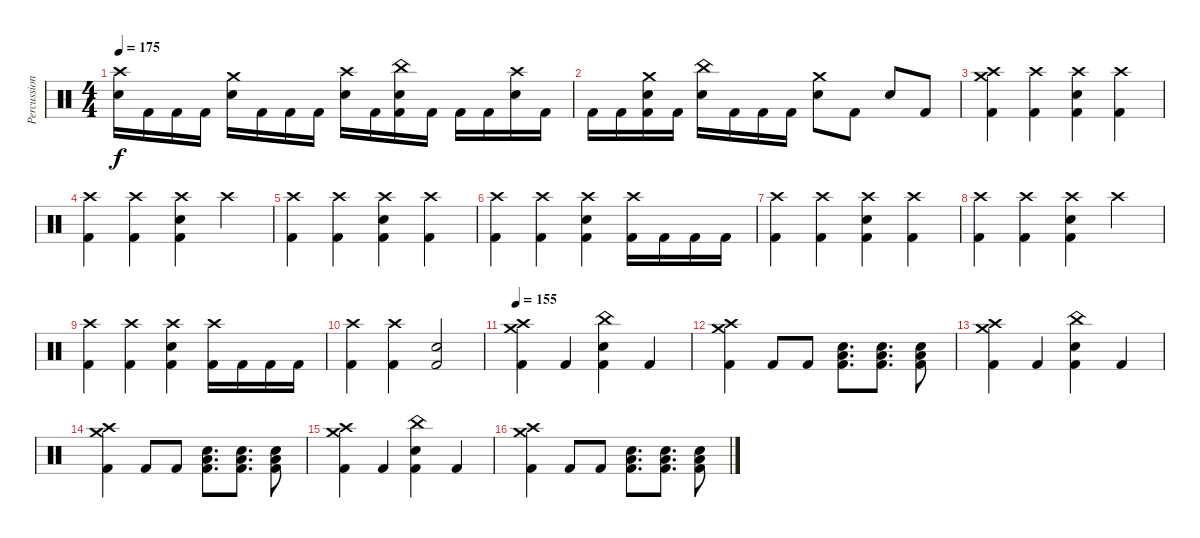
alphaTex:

\track ("Percussion" "Percussion") {instrument percussion}
\staff {score}
\articulation defaults
\ts (4 4)
\tempo 175
\clef neutral
\ks c
("Crash high (hit)" "Electric Snare (hit)").16{dy f} "Kick (hit) 2".16 "Kick (hit) 2".16 "Kick (hit) 2".16 ("Crash medium (hit)" "Electric Snare (hit)").16 "Kick (hit) 2".16 "Kick (hit) 2".16 "Kick (hit) 2".16 ("Crash high (hit)" "Electric Snare (hit)").16 "Kick (hit) 2".16 ("China (hit)" "Electric Snare (hit)" "Kick (hit) 2").16 "Kick (hit) 2".16 "Kick (hit) 2".16 "Kick (hit) 2".16 ("Crash high (hit)" "Electric Snare (hit)").16 "Kick (hit) 2".16 |
"Kick (hit) 2".16 "Kick (hit) 2".16 ("Crash medium (hit)" "Electric Snare (hit)" "Kick (hit) 2").16 "Kick (hit) 2".16 ("China (hit)" "Electric Snare (hit)").16 "Kick (hit) 2".16 "Kick (hit) 2".16 "Kick (hit) 2".16 ("Crash medium (hit)" "Electric Snare (hit)").8 "Kick (hit) 2".8 "Electric Snare (hit)".8 "Kick (hit) 2".8 |
("Crash medium (hit)" "Crash high (hit)" "Kick (hit) 2").4 ("Crash high (hit)" "Kick (hit) 2").4 ("Crash high (hit)" "Electric Snare (hit)" "Kick (hit) 2").4 ("Crash high (hit)" "Kick (hit) 2").4 |
("Crash high (hit)" "Kick (hit) 2").4 ("Crash high (hit)" "Kick (hit) 2").4 ("Crash high (hit)" "Electric Snare (hit)" "Kick (hit) 2").4 "Crash high (hit)".4 |
("Crash high (hit)" "Kick (hit) 2").4 ("Crash high (hit)" "Kick (hit) 2").4 ("Crash high (hit)" "Electric Snare (hit)" "Kick (hit) 2").4 ("Crash high (hit)" "Kick (hit) 2").4 |
("Crash high (hit)" "Kick (hit) 2").4 ("Crash high (hit)" "Kick (hit) 2").4 ("Crash high (hit)" "Electric Snare (hit)" "Kick (hit) 2").4 ("Crash high (hit)" "Kick (hit) 2").16 "Kick (hit) 2".16 "Kick (hit) 2".16 "Kick (hit) 2".16 |
("Crash high (hit)" "Kick (hit) 2").4 ("Crash high (hit)" "Kick (hit) 2").4 ("Crash high (hit)" "Electric Snare (hit)" "Kick (hit) 2").4 ("Crash high (hit)" "Kick (hit) 2").4 |
("Crash high (hit)" "Kick (hit) 2").4 ("Crash high (hit)" "Kick (hit) 2").4 ("Crash high (hit)" "Electric Snare (hit)" "Kick (hit) 2").4 "Crash high (hit)".4 |
("Crash high (hit)" "Kick (hit) 2").4 ("Crash high (hit)" "Kick (hit) 2").4 ("Crash high (hit)" "Electric Snare (hit)" "Kick (hit) 2").4 ("Crash high (hit)" "Kick (hit) 2").16 "Kick (hit) 2".16 "Kick (hit) 2".16 "Kick (hit) 2".16 |
("Crash high (hit)" "Kick (hit) 2").4 ("Crash high (hit)" "Kick (hit) 2").4 ("Electric Snare (hit)" "Kick (hit) 2").2 |
\tempo 155
("Crash medium (hit)" "Crash high (hit)" "Kick (hit) 2").4 "Kick (hit) 2".4 ("China (hit)" "Electric Snare (hit)" "Kick (hit) 2").4 "Kick (hit) 2".4 |
("Crash medium (hit)" "Crash high (hit)" "Kick (hit) 2").4 "Kick (hit) 2".8 "Kick (hit) 2".8 ("Low Floor Tom (hit)" "Electric Snare (hit)" "Kick (hit) 2").8{d} ("Low Floor Tom (hit)" "Electric Snare (hit)" "Kick (hit) 2").8{d} ("Low Floor Tom (hit)" "Electric Snare (hit)" "Kick (hit) 2").8 |
("Crash medium (hit)" "Crash high (hit)" "Kick (hit) 2").4 "Kick (hit) 2".4 ("China (hit)" "Electric Snare (hit)" "Kick (hit) 2").4 "Kick (hit) 2".4 |
("Crash medium (hit)" "Crash high (hit)" "Kick (hit) 2").4 "Kick (hit) 2".8 "Kick (hit) 2".8 ("Low Floor Tom (hit)" "Electric Snare (hit)" "Kick (hit) 2").8{d} ("Low Floor Tom (hit)" "Electric Snare (hit)" "Kick (hit) 2").8{d} ("Low Floor Tom (hit)" "Electric Snare (hit)" "Kick (hit) 2").8 |
("Crash medium (hit)" "Crash high (hit)" "Kick (hit) 2").4 "Kick (hit) 2".4 ("China (hit)" "Electric Snare (hit)" "Kick (hit) 2").4 "Kick (hit) 2".4 |
("Crash medium (hit)" "Crash high (hit)" "Kick (hit) 2").4 "Kick (hit) 2".8 "Kick (hit) 2".8 ("Low Floor Tom (hit)" "Electric Snare (hit)" "Kick (hit) 2").8{d} ("Low Floor Tom (hit)" "Electric Snare (hit)" "Kick (hit) 2").8{d} ("Low Floor Tom (hit)" "Electric Snare (hit)" "Kick (hit) 2").8
